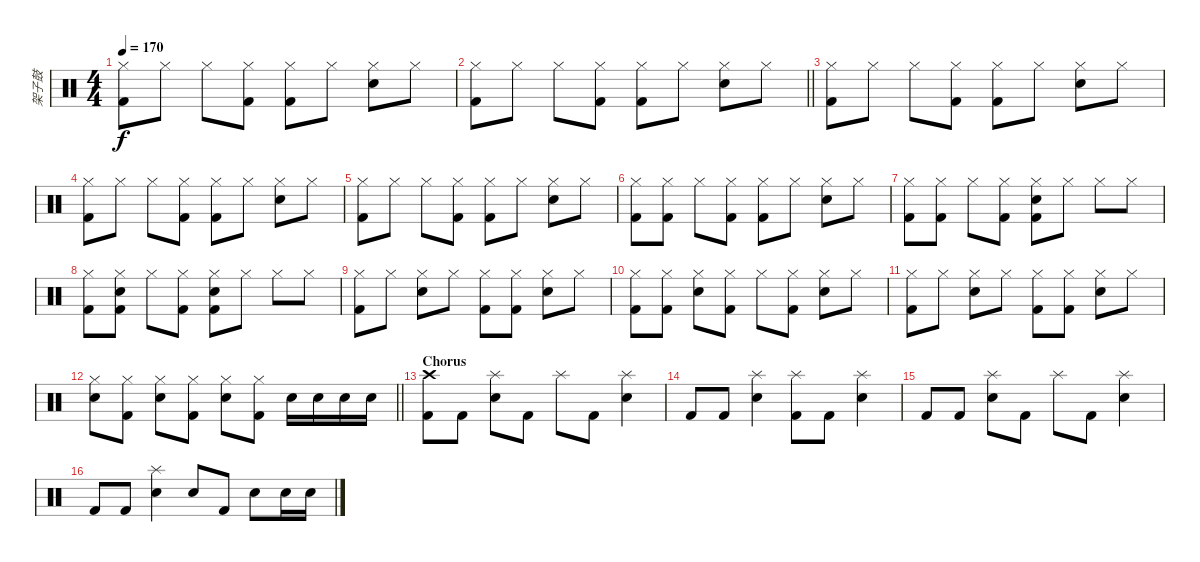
\track ("架子鼓" "架子鼓") {instrument percussion}
\staff {score}
\articulation defaults
\ts (4 4)
\tempo 170
\clef neutral
\ks c
("Hi-Hat (closed)" "Kick (hit) 2").8{dy f} "Hi-Hat (closed)".8 "Hi-Hat (closed)".8 ("Hi-Hat (closed)" "Kick (hit) 2").8 ("Hi-Hat (closed)" "Kick (hit) 2").8 "Hi-Hat (closed)".8 ("Hi-Hat (closed)" "Snare (hit) 2").8 "Hi-Hat (closed)".8 |
\barLineRight lightlight
("Hi-Hat (closed)" "Kick (hit) 2").8 "Hi-Hat (closed)".8 "Hi-Hat (closed)".8 ("Hi-Hat (closed)" "Kick (hit) 2").8 ("Hi-Hat (closed)" "Kick (hit) 2").8 "Hi-Hat (closed)".8 ("Hi-Hat (closed)" "Snare (hit) 2").8 "Hi-Hat (closed)".8 |
("Hi-Hat (closed)" "Kick (hit) 2").8 "Hi-Hat (closed)".8 "Hi-Hat (closed)".8 ("Hi-Hat (closed)" "Kick (hit) 2").8 ("Hi-Hat (closed)" "Kick (hit) 2").8 "Hi-Hat (closed)".8 ("Hi-Hat (closed)" "Snare (hit) 2").8 "Hi-Hat (closed)".8 |
("Hi-Hat (closed)" "Kick (hit) 2").8 "Hi-Hat (closed)".8 "Hi-Hat (closed)".8 ("Hi-Hat (closed)" "Kick (hit) 2").8 ("Hi-Hat (closed)" "Kick (hit) 2").8 "Hi-Hat (closed)".8 ("Hi-Hat (closed)" "Snare (hit) 2").8 "Hi-Hat (closed)".8 |
("Hi-Hat (closed)" "Kick (hit) 2").8 "Hi-Hat (closed)".8 "Hi-Hat (closed)".8 ("Hi-Hat (closed)" "Kick (hit) 2").8 ("Hi-Hat (closed)" "Kick (hit) 2").8 "Hi-Hat (closed)".8 ("Hi-Hat (closed)" "Snare (hit) 2").8 "Hi-Hat (closed)".8 |
("Hi-Hat (closed)" "Kick (hit) 2").8 ("Hi-Hat (closed)" "Kick (hit) 2").8 "Hi-Hat (closed)".8 ("Hi-Hat (closed)" "Kick (hit) 2").8 ("Hi-Hat (closed)" "Kick (hit) 2").8 "Hi-Hat (closed)".8 ("Hi-Hat (closed)" "Snare (hit) 2").8 "Hi-Hat (closed)".8 |
("Hi-Hat (closed)" "Kick (hit) 2").8 ("Hi-Hat (closed)" "Kick (hit) 2").8 "Hi-Hat (closed)".8 ("Hi-Hat (closed)" "Kick (hit) 2").8 ("Hi-Hat (closed)" "Snare (hit) 2" "Kick (hit) 2").8 "Hi-Hat (closed)".8 "Hi-Hat (closed)".8 "Hi-Hat (closed)".8 |
("Hi-Hat (closed)" "Kick (hit) 2").8 ("Hi-Hat (closed)" "Snare (hit) 2" "Kick (hit) 2").8 "Hi-Hat (closed)".8 ("Hi-Hat (closed)" "Kick (hit) 2").8 ("Hi-Hat (closed)" "Snare (hit) 2" "Kick (hit) 2").8 "Hi-Hat (closed)".8 "Hi-Hat (closed)".8 "Hi-Hat (closed)".8 |
("Hi-Hat (closed)" "Kick (hit) 2").8 "Hi-Hat (closed)".8 ("Hi-Hat (closed)" "Snare (hit) 2").8 "Hi-Hat (closed)".8 ("Hi-Hat (closed)" "Kick (hit) 2").8 ("Hi-Hat (closed)" "Kick (hit) 2").8 ("Hi-Hat (closed)" "Snare (hit) 2").8 "Hi-Hat (closed)".8 |
("Hi-Hat (closed)" "Kick (hit) 2").8 ("Hi-Hat (closed)" "Kick (hit) 2").8 ("Hi-Hat (closed)" "Snare (hit) 2").8 ("Hi-Hat (closed)" "Kick (hit) 2").8 "Hi-Hat (closed)".8 ("Hi-Hat (closed)" "Kick (hit) 2").8 ("Hi-Hat (closed)" "Snare (hit) 2").8 "Hi-Hat (closed)".8 |
("Hi-Hat (closed)" "Kick (hit) 2").8 "Hi-Hat (closed)".8 ("Hi-Hat (closed)" "Snare (hit) 2").8 "Hi-Hat (closed)".8 ("Hi-Hat (closed)" "Kick (hit) 2").8 ("Hi-Hat (closed)" "Kick (hit) 2").8 ("Hi-Hat (closed)" "Snare (hit) 2").8 "Hi-Hat (closed)".8 |
\barLineRight lightlight
("Hi-Hat (closed)" "Snare (hit) 2").8 ("Hi-Hat (closed)" "Kick (hit) 2").8 ("Hi-Hat (closed)" "Snare (hit) 2").8 ("Hi-Hat (closed)" "Kick (hit) 2").8 ("Hi-Hat (closed)" "Snare (hit) 2").8 ("Hi-Hat (closed)" "Kick (hit) 2").8 "Snare (hit) 2".16 "Snare (hit) 2".16 "Snare (hit) 2".16 "Snare (hit) 2".16 |
\section ("" "Chorus")
("Crash high (hit)" "Kick (hit) 2").8 "Kick (hit) 2".8 ("Splash (hit)" "Snare (hit) 2").8 "Kick (hit) 2".8 "Splash (hit)".8 "Kick (hit) 2".8 ("Splash (hit)" "Snare (hit) 2").4 |
"Kick (hit) 2".8 "Kick (hit) 2".8 ("Splash (hit)" "Snare (hit) 2").4 ("Splash (hit)" "Kick (hit) 2").8 "Kick (hit) 2".8 ("Splash (hit)" "Snare (hit) 2").4 |
"Kick (hit) 2".8 "Kick (hit) 2".8 ("Splash (hit)" "Snare (hit) 2").8 "Kick (hit) 2".8 "Splash (hit)".8 "Kick (hit) 2".8 ("Splash (hit)" "Snare (hit) 2").4 |
"Kick (hit) 2".8 "Kick (hit) 2".8 ("Splash (hit)" "Snare (hit) 2").4 "Snare (hit) 2".8 "Kick (hit) 2".8 "Snare (hit) 2".8 "Snare (hit) 2".16 "Snare (hit) 2".16
